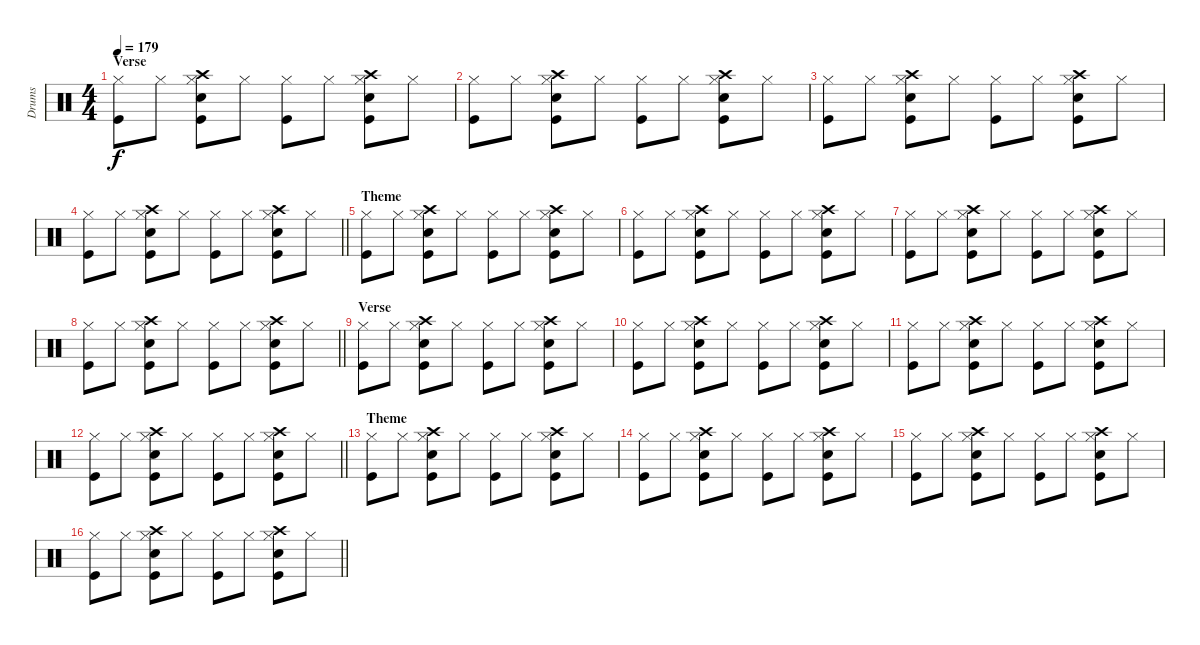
\track ("Drums" "Drums") {instrument percussion}
\staff {score}
\articulation defaults
\ts (4 4)
\section ("" "Verse")
\tempo 179
\clef neutral
\ks c
("Hi-Hat (closed)" "Kick (hit)").8{dy f} "Hi-Hat (closed)".8 ("Crash high (hit)" "Hi-Hat (closed)" "Snare (hit) 2" "Kick (hit)").8 "Hi-Hat (closed)".8 ("Hi-Hat (closed)" "Kick (hit)").8 "Hi-Hat (closed)".8 ("Crash high (hit)" "Hi-Hat (closed)" "Snare (hit) 2" "Kick (hit)").8 "Hi-Hat (closed)".8 |
("Hi-Hat (closed)" "Kick (hit)").8 "Hi-Hat (closed)".8 ("Crash high (hit)" "Hi-Hat (closed)" "Snare (hit) 2" "Kick (hit)").8 "Hi-Hat (closed)".8 ("Hi-Hat (closed)" "Kick (hit)").8 "Hi-Hat (closed)".8 ("Crash high (hit)" "Hi-Hat (closed)" "Snare (hit) 2" "Kick (hit)").8 "Hi-Hat (closed)".8 |
("Hi-Hat (closed)" "Kick (hit)").8 "Hi-Hat (closed)".8 ("Crash high (hit)" "Hi-Hat (closed)" "Snare (hit) 2" "Kick (hit)").8 "Hi-Hat (closed)".8 ("Hi-Hat (closed)" "Kick (hit)").8 "Hi-Hat (closed)".8 ("Crash high (hit)" "Hi-Hat (closed)" "Snare (hit) 2" "Kick (hit)").8 "Hi-Hat (closed)".8 |
\barLineRight lightlight
("Hi-Hat (closed)" "Kick (hit)").8 "Hi-Hat (closed)".8 ("Crash high (hit)" "Hi-Hat (closed)" "Snare (hit) 2" "Kick (hit)").8 "Hi-Hat (closed)".8 ("Hi-Hat (closed)" "Kick (hit)").8 "Hi-Hat (closed)".8 ("Crash high (hit)" "Hi-Hat (closed)" "Snare (hit) 2" "Kick (hit)").8 "Hi-Hat (closed)".8 |
\section ("" "Theme")
("Hi-Hat (closed)" "Kick (hit)").8 "Hi-Hat (closed)".8 ("Crash high (hit)" "Hi-Hat (closed)" "Snare (hit) 2" "Kick (hit)").8 "Hi-Hat (closed)".8 ("Hi-Hat (closed)" "Kick (hit)").8 "Hi-Hat (closed)".8 ("Crash high (hit)" "Hi-Hat (closed)" "Snare (hit) 2" "Kick (hit)").8 "Hi-Hat (closed)".8 |
("Hi-Hat (closed)" "Kick (hit)").8 "Hi-Hat (closed)".8 ("Crash high (hit)" "Hi-Hat (closed)" "Snare (hit) 2" "Kick (hit)").8 "Hi-Hat (closed)".8 ("Hi-Hat (closed)" "Kick (hit)").8 "Hi-Hat (closed)".8 ("Crash high (hit)" "Hi-Hat (closed)" "Snare (hit) 2" "Kick (hit)").8 "Hi-Hat (closed)".8 |
("Hi-Hat (closed)" "Kick (hit)").8 "Hi-Hat (closed)".8 ("Crash high (hit)" "Hi-Hat (closed)" "Snare (hit) 2" "Kick (hit)").8 "Hi-Hat (closed)".8 ("Hi-Hat (closed)" "Kick (hit)").8 "Hi-Hat (closed)".8 ("Crash high (hit)" "Hi-Hat (closed)" "Snare (hit) 2" "Kick (hit)").8 "Hi-Hat (closed)".8 |
\barLineRight lightlight
("Hi-Hat (closed)" "Kick (hit)").8 "Hi-Hat (closed)".8 ("Crash high (hit)" "Hi-Hat (closed)" "Snare (hit) 2" "Kick (hit)").8 "Hi-Hat (closed)".8 ("Hi-Hat (closed)" "Kick (hit)").8 "Hi-Hat (closed)".8 ("Crash high (hit)" "Hi-Hat (closed)" "Snare (hit) 2" "Kick (hit)").8 "Hi-Hat (closed)".8 |
\section ("" "Verse")
("Hi-Hat (closed)" "Kick (hit)").8 "Hi-Hat (closed)".8 ("Crash high (hit)" "Hi-Hat (closed)" "Snare (hit) 2" "Kick (hit)").8 "Hi-Hat (closed)".8 ("Hi-Hat (closed)" "Kick (hit)").8 "Hi-Hat (closed)".8 ("Crash high (hit)" "Hi-Hat (closed)" "Snare (hit) 2" "Kick (hit)").8 "Hi-Hat (closed)".8 |
("Hi-Hat (closed)" "Kick (hit)").8 "Hi-Hat (closed)".8 ("Crash high (hit)" "Hi-Hat (closed)" "Snare (hit) 2" "Kick (hit)").8 "Hi-Hat (closed)".8 ("Hi-Hat (closed)" "Kick (hit)").8 "Hi-Hat (closed)".8 ("Crash high (hit)" "Hi-Hat (closed)" "Snare (hit) 2" "Kick (hit)").8 "Hi-Hat (closed)".8 |
("Hi-Hat (closed)" "Kick (hit)").8 "Hi-Hat (closed)".8 ("Crash high (hit)" "Hi-Hat (closed)" "Snare (hit) 2" "Kick (hit)").8 "Hi-Hat (closed)".8 ("Hi-Hat (closed)" "Kick (hit)").8 "Hi-Hat (closed)".8 ("Crash high (hit)" "Hi-Hat (closed)" "Snare (hit) 2" "Kick (hit)").8 "Hi-Hat (closed)".8 |
\barLineRight lightlight
("Hi-Hat (closed)" "Kick (hit)").8 "Hi-Hat (closed)".8 ("Crash high (hit)" "Hi-Hat (closed)" "Snare (hit) 2" "Kick (hit)").8 "Hi-Hat (closed)".8 ("Hi-Hat (closed)" "Kick (hit)").8 "Hi-Hat (closed)".8 ("Crash high (hit)" "Hi-Hat (closed)" "Snare (hit) 2" "Kick (hit)").8 "Hi-Hat (closed)".8 |
\section ("" "Theme")
("Hi-Hat (closed)" "Kick (hit)").8 "Hi-Hat (closed)".8 ("Crash high (hit)" "Hi-Hat (closed)" "Snare (hit) 2" "Kick (hit)").8 "Hi-Hat (closed)".8 ("Hi-Hat (closed)" "Kick (hit)").8 "Hi-Hat (closed)".8 ("Crash high (hit)" "Hi-Hat (closed)" "Snare (hit) 2" "Kick (hit)").8 "Hi-Hat (closed)".8 |
("Hi-Hat (closed)" "Kick (hit)").8 "Hi-Hat (closed)".8 ("Crash high (hit)" "Hi-Hat (closed)" "Snare (hit) 2" "Kick (hit)").8 "Hi-Hat (closed)".8 ("Hi-Hat (closed)" "Kick (hit)").8 "Hi-Hat (closed)".8 ("Crash high (hit)" "Hi-Hat (closed)" "Snare (hit) 2" "Kick (hit)").8 "Hi-Hat (closed)".8 |
("Hi-Hat (closed)" "Kick (hit)").8 "Hi-Hat (closed)".8 ("Crash high (hit)" "Hi-Hat (closed)" "Snare (hit) 2" "Kick (hit)").8 "Hi-Hat (closed)".8 ("Hi-Hat (closed)" "Kick (hit)").8 "Hi-Hat (closed)".8 ("Crash high (hit)" "Hi-Hat (closed)" "Snare (hit) 2" "Kick (hit)").8 "Hi-Hat (closed)".8 |
\barLineRight lightlight
("Hi-Hat (closed)" "Kick (hit)").8 "Hi-Hat (closed)".8 ("Crash high (hit)" "Hi-Hat (closed)" "Snare (hit) 2" "Kick (hit)").8 "Hi-Hat (closed)".8 ("Hi-Hat (closed)" "Kick (hit)").8 "Hi-Hat (closed)".8 ("Crash high (hit)" "Hi-Hat (closed)" "Snare (hit) 2" "Kick (hit)").8 "Hi-Hat (closed)".8
